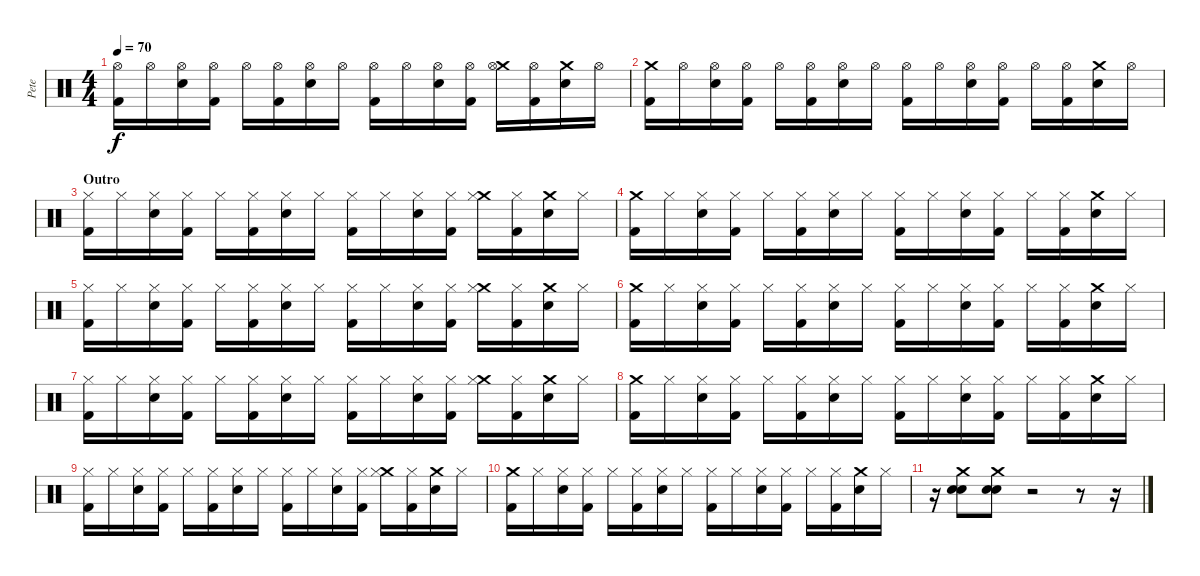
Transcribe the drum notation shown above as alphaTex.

\track ("Pete" "Pete") {instrument percussion}
\staff {score}
\articulation defaults
\ts (4 4)
\tempo 70
\clef neutral
\ks c
("Hi-Hat (open)" "Kick (hit) 2").16{dy f} "Hi-Hat (open)".16 ("Hi-Hat (open)" "Snare (hit) 2").16 ("Hi-Hat (open)" "Kick (hit) 2").16 "Hi-Hat (open)".16 ("Hi-Hat (open)" "Kick (hit) 2").16 ("Hi-Hat (open)" "Snare (hit) 2").16 "Hi-Hat (open)".16 ("Hi-Hat (open)" "Kick (hit) 2").16 "Hi-Hat (open)".16 ("Hi-Hat (open)" "Snare (hit) 2").16 ("Hi-Hat (open)" "Kick (hit) 2").16 ("Crash medium (hit)" "Hi-Hat (open)").16 ("Hi-Hat (open)" "Kick (hit) 2").16 ("Crash medium (hit)" "Snare (hit) 2").16 "Hi-Hat (open)".16 |
("Crash medium (hit)" "Kick (hit) 2").16 "Hi-Hat (open)".16 ("Hi-Hat (open)" "Snare (hit) 2").16 ("Hi-Hat (open)" "Kick (hit) 2").16 "Hi-Hat (open)".16 ("Hi-Hat (open)" "Kick (hit) 2").16 ("Hi-Hat (open)" "Snare (hit) 2").16 "Hi-Hat (open)".16 ("Hi-Hat (open)" "Kick (hit) 2").16 "Hi-Hat (open)".16 ("Hi-Hat (open)" "Snare (hit) 2").16 ("Hi-Hat (open)" "Kick (hit) 2").16 "Hi-Hat (open)".16 ("Hi-Hat (open)" "Kick (hit) 2").16 ("Crash medium (hit)" "Snare (hit) 2").16 "Hi-Hat (open)".16 |
\section ("" "Outro")
("Hi-Hat (closed)" "Kick (hit) 2").16 "Hi-Hat (closed)".16 ("Hi-Hat (closed)" "Snare (hit) 2").16 ("Hi-Hat (closed)" "Kick (hit) 2").16 "Hi-Hat (closed)".16 ("Hi-Hat (closed)" "Kick (hit) 2").16 ("Hi-Hat (closed)" "Snare (hit) 2").16 "Hi-Hat (closed)".16 ("Hi-Hat (closed)" "Kick (hit) 2").16 "Hi-Hat (closed)".16 ("Hi-Hat (closed)" "Snare (hit) 2").16 ("Hi-Hat (closed)" "Kick (hit) 2").16 ("Crash medium (hit)" "Hi-Hat (closed)").16 ("Hi-Hat (closed)" "Kick (hit) 2").16 ("Crash medium (hit)" "Snare (hit) 2").16 "Hi-Hat (closed)".16 |
("Crash medium (hit)" "Kick (hit) 2").16 "Hi-Hat (closed)".16 ("Hi-Hat (closed)" "Snare (hit) 2").16 ("Hi-Hat (closed)" "Kick (hit) 2").16 "Hi-Hat (closed)".16 ("Hi-Hat (closed)" "Kick (hit) 2").16 ("Hi-Hat (closed)" "Snare (hit) 2").16 "Hi-Hat (closed)".16 ("Hi-Hat (closed)" "Kick (hit) 2").16 "Hi-Hat (closed)".16 ("Hi-Hat (closed)" "Snare (hit) 2").16 ("Hi-Hat (closed)" "Kick (hit) 2").16 "Hi-Hat (closed)".16 ("Hi-Hat (closed)" "Kick (hit) 2").16 ("Crash medium (hit)" "Snare (hit) 2").16 "Hi-Hat (closed)".16 |
("Hi-Hat (closed)" "Kick (hit) 2").16 "Hi-Hat (closed)".16 ("Hi-Hat (closed)" "Snare (hit) 2").16 ("Hi-Hat (closed)" "Kick (hit) 2").16 "Hi-Hat (closed)".16 ("Hi-Hat (closed)" "Kick (hit) 2").16 ("Hi-Hat (closed)" "Snare (hit) 2").16 "Hi-Hat (closed)".16 ("Hi-Hat (closed)" "Kick (hit) 2").16 "Hi-Hat (closed)".16 ("Hi-Hat (closed)" "Snare (hit) 2").16 ("Hi-Hat (closed)" "Kick (hit) 2").16 ("Crash medium (hit)" "Hi-Hat (closed)").16 ("Hi-Hat (closed)" "Kick (hit) 2").16 ("Crash medium (hit)" "Snare (hit) 2").16 "Hi-Hat (closed)".16 |
("Crash medium (hit)" "Kick (hit) 2").16 "Hi-Hat (closed)".16 ("Hi-Hat (closed)" "Snare (hit) 2").16 ("Hi-Hat (closed)" "Kick (hit) 2").16 "Hi-Hat (closed)".16 ("Hi-Hat (closed)" "Kick (hit) 2").16 ("Hi-Hat (closed)" "Snare (hit) 2").16 "Hi-Hat (closed)".16 ("Hi-Hat (closed)" "Kick (hit) 2").16 "Hi-Hat (closed)".16 ("Hi-Hat (closed)" "Snare (hit) 2").16 ("Hi-Hat (closed)" "Kick (hit) 2").16 "Hi-Hat (closed)".16 ("Hi-Hat (closed)" "Kick (hit) 2").16 ("Crash medium (hit)" "Snare (hit) 2").16 "Hi-Hat (closed)".16 |
("Hi-Hat (closed)" "Kick (hit) 2").16 "Hi-Hat (closed)".16 ("Hi-Hat (closed)" "Snare (hit) 2").16 ("Hi-Hat (closed)" "Kick (hit) 2").16 "Hi-Hat (closed)".16 ("Hi-Hat (closed)" "Kick (hit) 2").16 ("Hi-Hat (closed)" "Snare (hit) 2").16 "Hi-Hat (closed)".16 ("Hi-Hat (closed)" "Kick (hit) 2").16 "Hi-Hat (closed)".16 ("Hi-Hat (closed)" "Snare (hit) 2").16 ("Hi-Hat (closed)" "Kick (hit) 2").16 ("Crash medium (hit)" "Hi-Hat (closed)").16 ("Hi-Hat (closed)" "Kick (hit) 2").16 ("Crash medium (hit)" "Snare (hit) 2").16 "Hi-Hat (closed)".16 |
("Crash medium (hit)" "Kick (hit) 2").16 "Hi-Hat (closed)".16 ("Hi-Hat (closed)" "Snare (hit) 2").16 ("Hi-Hat (closed)" "Kick (hit) 2").16 "Hi-Hat (closed)".16 ("Hi-Hat (closed)" "Kick (hit) 2").16 ("Hi-Hat (closed)" "Snare (hit) 2").16 "Hi-Hat (closed)".16 ("Hi-Hat (closed)" "Kick (hit) 2").16 "Hi-Hat (closed)".16 ("Hi-Hat (closed)" "Snare (hit) 2").16 ("Hi-Hat (closed)" "Kick (hit) 2").16 "Hi-Hat (closed)".16 ("Hi-Hat (closed)" "Kick (hit) 2").16 ("Crash medium (hit)" "Snare (hit) 2").16 "Hi-Hat (closed)".16 |
("Hi-Hat (closed)" "Kick (hit) 2").16 "Hi-Hat (closed)".16 ("Hi-Hat (closed)" "Snare (hit) 2").16 ("Hi-Hat (closed)" "Kick (hit) 2").16 "Hi-Hat (closed)".16 ("Hi-Hat (closed)" "Kick (hit) 2").16 ("Hi-Hat (closed)" "Snare (hit) 2").16 "Hi-Hat (closed)".16 ("Hi-Hat (closed)" "Kick (hit) 2").16 "Hi-Hat (closed)".16 ("Hi-Hat (closed)" "Snare (hit) 2").16 ("Hi-Hat (closed)" "Kick (hit) 2").16 ("Crash medium (hit)" "Hi-Hat (closed)").16 ("Hi-Hat (closed)" "Kick (hit) 2").16 ("Crash medium (hit)" "Snare (hit) 2").16 "Hi-Hat (closed)".16 |
("Crash medium (hit)" "Kick (hit) 2").16 "Hi-Hat (closed)".16 ("Hi-Hat (closed)" "Snare (hit) 2").16 ("Hi-Hat (closed)" "Kick (hit) 2").16 "Hi-Hat (closed)".16 ("Hi-Hat (closed)" "Kick (hit) 2").16 ("Hi-Hat (closed)" "Snare (hit) 2").16 "Hi-Hat (closed)".16 ("Hi-Hat (closed)" "Kick (hit) 2").16 "Hi-Hat (closed)".16 ("Hi-Hat (closed)" "Snare (hit) 2").16 ("Hi-Hat (closed)" "Kick (hit) 2").16 "Hi-Hat (closed)".16 ("Hi-Hat (closed)" "Kick (hit) 2").16 ("Crash medium (hit)" "Snare (hit) 2").16 "Hi-Hat (closed)".16 |
r.16 ("Crash medium (hit)" "Snare (hit) 2" "Hand Clap (hit)").8 ("Crash medium (hit)" "Snare (hit) 2" "Hand Clap (hit)").8 r.2 r.8 r.16
